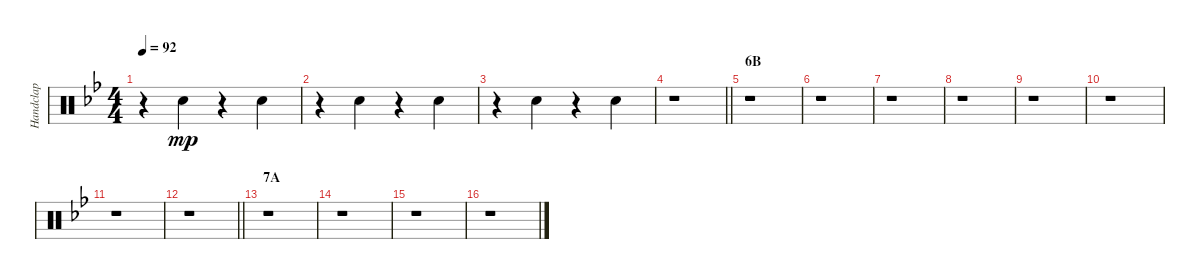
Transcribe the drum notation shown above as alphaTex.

\track ("Handclap" "Handclap") {instrument percussion}
\staff {score}
\articulation defaults
\ts (4 4)
\tempo 92
\clef neutral
\ks bb
r.4{dy mp} "Hand Clap (hit)".4 r.4 "Hand Clap (hit)".4 |
r.4 "Hand Clap (hit)".4 r.4 "Hand Clap (hit)".4 |
r.4 "Hand Clap (hit)".4 r.4 "Hand Clap (hit)".4 |
\barLineRight lightlight
r.1 |
\section ("" "6B")
r.1 |
r.1 |
r.1 |
r.1 |
r.1 |
r.1 |
r.1 |
\barLineRight lightlight
r.1 |
\section ("" "7A")
r.1 |
r.1 |
r.1 |
r.1
